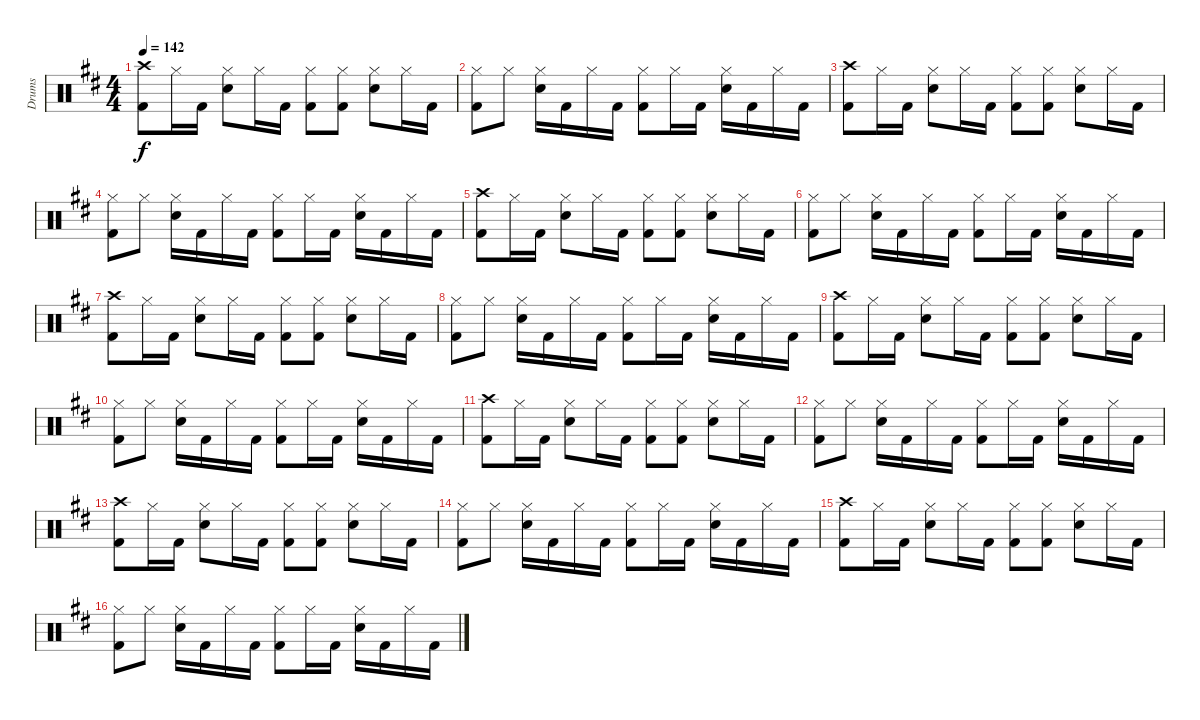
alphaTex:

\track ("Drums" "Drums") {instrument percussion}
\staff {score}
\articulation defaults
\ts (4 4)
\tempo 142
\clef neutral
\ks bminor
("Crash high (hit)" "Kick (hit) 2").8{dy f} "Hi-Hat (closed)".16 "Kick (hit) 2".16 ("Hi-Hat (closed)" "Electric Snare (hit)").8 "Hi-Hat (closed)".16 "Kick (hit) 2".16 ("Hi-Hat (closed)" "Kick (hit) 2").8 ("Hi-Hat (closed)" "Kick (hit) 2").8 ("Hi-Hat (closed)" "Electric Snare (hit)").8 "Hi-Hat (closed)".16 "Kick (hit) 2".16 |
("Hi-Hat (closed)" "Kick (hit) 2").8 "Hi-Hat (closed)".8 ("Hi-Hat (closed)" "Electric Snare (hit)").16 "Kick (hit) 2".16 "Hi-Hat (closed)".16 "Kick (hit) 2".16 ("Hi-Hat (closed)" "Kick (hit) 2").8 "Hi-Hat (closed)".16 "Kick (hit) 2".16 ("Hi-Hat (closed)" "Electric Snare (hit)").16 "Kick (hit) 2".16 "Hi-Hat (closed)".16 "Kick (hit) 2".16 |
("Crash high (hit)" "Kick (hit) 2").8 "Hi-Hat (closed)".16 "Kick (hit) 2".16 ("Hi-Hat (closed)" "Electric Snare (hit)").8 "Hi-Hat (closed)".16 "Kick (hit) 2".16 ("Hi-Hat (closed)" "Kick (hit) 2").8 ("Hi-Hat (closed)" "Kick (hit) 2").8 ("Hi-Hat (closed)" "Electric Snare (hit)").8 "Hi-Hat (closed)".16 "Kick (hit) 2".16 |
("Hi-Hat (closed)" "Kick (hit) 2").8 "Hi-Hat (closed)".8 ("Hi-Hat (closed)" "Electric Snare (hit)").16 "Kick (hit) 2".16 "Hi-Hat (closed)".16 "Kick (hit) 2".16 ("Hi-Hat (closed)" "Kick (hit) 2").8 "Hi-Hat (closed)".16 "Kick (hit) 2".16 ("Hi-Hat (closed)" "Electric Snare (hit)").16 "Kick (hit) 2".16 "Hi-Hat (closed)".16 "Kick (hit) 2".16 |
("Crash high (hit)" "Kick (hit) 2").8 "Hi-Hat (closed)".16 "Kick (hit) 2".16 ("Hi-Hat (closed)" "Electric Snare (hit)").8 "Hi-Hat (closed)".16 "Kick (hit) 2".16 ("Hi-Hat (closed)" "Kick (hit) 2").8 ("Hi-Hat (closed)" "Kick (hit) 2").8 ("Hi-Hat (closed)" "Electric Snare (hit)").8 "Hi-Hat (closed)".16 "Kick (hit) 2".16 |
("Hi-Hat (closed)" "Kick (hit) 2").8 "Hi-Hat (closed)".8 ("Hi-Hat (closed)" "Electric Snare (hit)").16 "Kick (hit) 2".16 "Hi-Hat (closed)".16 "Kick (hit) 2".16 ("Hi-Hat (closed)" "Kick (hit) 2").8 "Hi-Hat (closed)".16 "Kick (hit) 2".16 ("Hi-Hat (closed)" "Electric Snare (hit)").16 "Kick (hit) 2".16 "Hi-Hat (closed)".16 "Kick (hit) 2".16 |
("Crash high (hit)" "Kick (hit) 2").8 "Hi-Hat (closed)".16 "Kick (hit) 2".16 ("Hi-Hat (closed)" "Electric Snare (hit)").8 "Hi-Hat (closed)".16 "Kick (hit) 2".16 ("Hi-Hat (closed)" "Kick (hit) 2").8 ("Hi-Hat (closed)" "Kick (hit) 2").8 ("Hi-Hat (closed)" "Electric Snare (hit)").8 "Hi-Hat (closed)".16 "Kick (hit) 2".16 |
("Hi-Hat (closed)" "Kick (hit) 2").8 "Hi-Hat (closed)".8 ("Hi-Hat (closed)" "Electric Snare (hit)").16 "Kick (hit) 2".16 "Hi-Hat (closed)".16 "Kick (hit) 2".16 ("Hi-Hat (closed)" "Kick (hit) 2").8 "Hi-Hat (closed)".16 "Kick (hit) 2".16 ("Hi-Hat (closed)" "Electric Snare (hit)").16 "Kick (hit) 2".16 "Hi-Hat (closed)".16 "Kick (hit) 2".16 |
("Crash high (hit)" "Kick (hit) 2").8 "Hi-Hat (closed)".16 "Kick (hit) 2".16 ("Hi-Hat (closed)" "Electric Snare (hit)").8 "Hi-Hat (closed)".16 "Kick (hit) 2".16 ("Hi-Hat (closed)" "Kick (hit) 2").8 ("Hi-Hat (closed)" "Kick (hit) 2").8 ("Hi-Hat (closed)" "Electric Snare (hit)").8 "Hi-Hat (closed)".16 "Kick (hit) 2".16 |
("Hi-Hat (closed)" "Kick (hit) 2").8 "Hi-Hat (closed)".8 ("Hi-Hat (closed)" "Electric Snare (hit)").16 "Kick (hit) 2".16 "Hi-Hat (closed)".16 "Kick (hit) 2".16 ("Hi-Hat (closed)" "Kick (hit) 2").8 "Hi-Hat (closed)".16 "Kick (hit) 2".16 ("Hi-Hat (closed)" "Electric Snare (hit)").16 "Kick (hit) 2".16 "Hi-Hat (closed)".16 "Kick (hit) 2".16 |
("Crash high (hit)" "Kick (hit) 2").8 "Hi-Hat (closed)".16 "Kick (hit) 2".16 ("Hi-Hat (closed)" "Electric Snare (hit)").8 "Hi-Hat (closed)".16 "Kick (hit) 2".16 ("Hi-Hat (closed)" "Kick (hit) 2").8 ("Hi-Hat (closed)" "Kick (hit) 2").8 ("Hi-Hat (closed)" "Electric Snare (hit)").8 "Hi-Hat (closed)".16 "Kick (hit) 2".16 |
("Hi-Hat (closed)" "Kick (hit) 2").8 "Hi-Hat (closed)".8 ("Hi-Hat (closed)" "Electric Snare (hit)").16 "Kick (hit) 2".16 "Hi-Hat (closed)".16 "Kick (hit) 2".16 ("Hi-Hat (closed)" "Kick (hit) 2").8 "Hi-Hat (closed)".16 "Kick (hit) 2".16 ("Hi-Hat (closed)" "Electric Snare (hit)").16 "Kick (hit) 2".16 "Hi-Hat (closed)".16 "Kick (hit) 2".16 |
("Crash high (hit)" "Kick (hit) 2").8 "Hi-Hat (closed)".16 "Kick (hit) 2".16 ("Hi-Hat (closed)" "Electric Snare (hit)").8 "Hi-Hat (closed)".16 "Kick (hit) 2".16 ("Hi-Hat (closed)" "Kick (hit) 2").8 ("Hi-Hat (closed)" "Kick (hit) 2").8 ("Hi-Hat (closed)" "Electric Snare (hit)").8 "Hi-Hat (closed)".16 "Kick (hit) 2".16 |
("Hi-Hat (closed)" "Kick (hit) 2").8 "Hi-Hat (closed)".8 ("Hi-Hat (closed)" "Electric Snare (hit)").16 "Kick (hit) 2".16 "Hi-Hat (closed)".16 "Kick (hit) 2".16 ("Hi-Hat (closed)" "Kick (hit) 2").8 "Hi-Hat (closed)".16 "Kick (hit) 2".16 ("Hi-Hat (closed)" "Electric Snare (hit)").16 "Kick (hit) 2".16 "Hi-Hat (closed)".16 "Kick (hit) 2".16 |
("Crash high (hit)" "Kick (hit) 2").8 "Hi-Hat (closed)".16 "Kick (hit) 2".16 ("Hi-Hat (closed)" "Electric Snare (hit)").8 "Hi-Hat (closed)".16 "Kick (hit) 2".16 ("Hi-Hat (closed)" "Kick (hit) 2").8 ("Hi-Hat (closed)" "Kick (hit) 2").8 ("Hi-Hat (closed)" "Electric Snare (hit)").8 "Hi-Hat (closed)".16 "Kick (hit) 2".16 |
("Hi-Hat (closed)" "Kick (hit) 2").8 "Hi-Hat (closed)".8 ("Hi-Hat (closed)" "Electric Snare (hit)").16 "Kick (hit) 2".16 "Hi-Hat (closed)".16 "Kick (hit) 2".16 ("Hi-Hat (closed)" "Kick (hit) 2").8 "Hi-Hat (closed)".16 "Kick (hit) 2".16 ("Hi-Hat (closed)" "Electric Snare (hit)").16 "Kick (hit) 2".16 "Hi-Hat (closed)".16 "Kick (hit) 2".16
